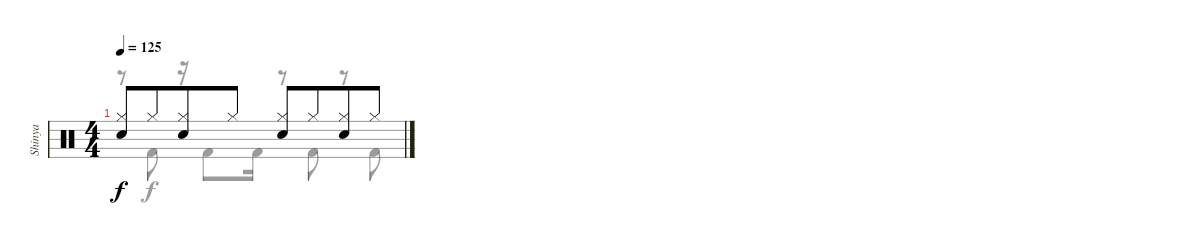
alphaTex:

\track ("Shinya" "Shinya") {instrument percussion}
\staff {score}
\articulation defaults
\voice
\ts (4 4)
\tempo 125
\clef neutral
\ks c
("Hi-Hat (closed)" "Snare (hit) 2").8{dy f} "Hi-Hat (closed)".8{beam merge} ("Hi-Hat (closed)" "Snare (hit) 2").8 "Hi-Hat (closed)".8 ("Hi-Hat (closed)" "Snare (hit) 2").8 "Hi-Hat (closed)".8{beam merge} ("Hi-Hat (closed)" "Snare (hit) 2").8 "Hi-Hat (closed)".8
\voice
\clef neutral
\ottava regular
\simile none
\ks c
r.8{dy f} "Kick (hit) 2".8 r.16 "Kick (hit) 2".8 "Kick (hit) 2".16 r.8 "Kick (hit) 2".8 r.8 "Kick (hit) 2".8
